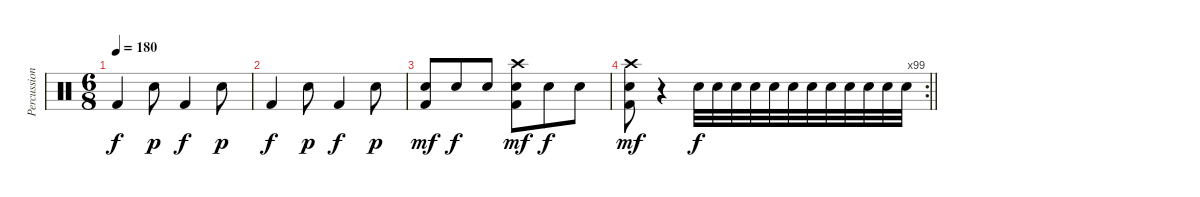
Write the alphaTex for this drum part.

\track ("Percussion" "Percussion") {instrument percussion}
\staff {score}
\articulation defaults
\ts (6 8)
\tempo 180
\clef neutral
\ks c "Kick (hit) 2".4{dy f} "Snare (hit) 2".8{dy p} "Kick (hit) 2".4{dy f} "Snare (hit) 2".8{dy p}
|
"Kick (hit) 2".4{dy f} "Snare (hit) 2".8{dy p} "Kick (hit) 2".4{dy f} "Snare (hit) 2".8{dy p} |
("Snare (hit) 2" "Kick (hit) 2").8{dy mf} "Snare (hit) 2".8{dy f} "Snare (hit) 2".8 ("Crash high (hit)" "Snare (hit) 2" "Kick (hit) 2").8{dy mf} "Snare (hit) 2".8{dy f} "Snare (hit) 2".8 |
\rc 99
\barLineRight lightlight
("Crash high (hit)" "Snare (hit) 2" "Kick (hit) 2").8{dy mf} r.4 "Snare (hit) 2".32{dy f} "Snare (hit) 2".32 "Snare (hit) 2".32 "Snare (hit) 2".32 "Snare (hit) 2".32 "Snare (hit) 2".32 "Snare (hit) 2".32 "Snare (hit) 2".32 "Snare (hit) 2".32 "Snare (hit) 2".32 "Snare (hit) 2".32 "Snare (hit) 2".32
